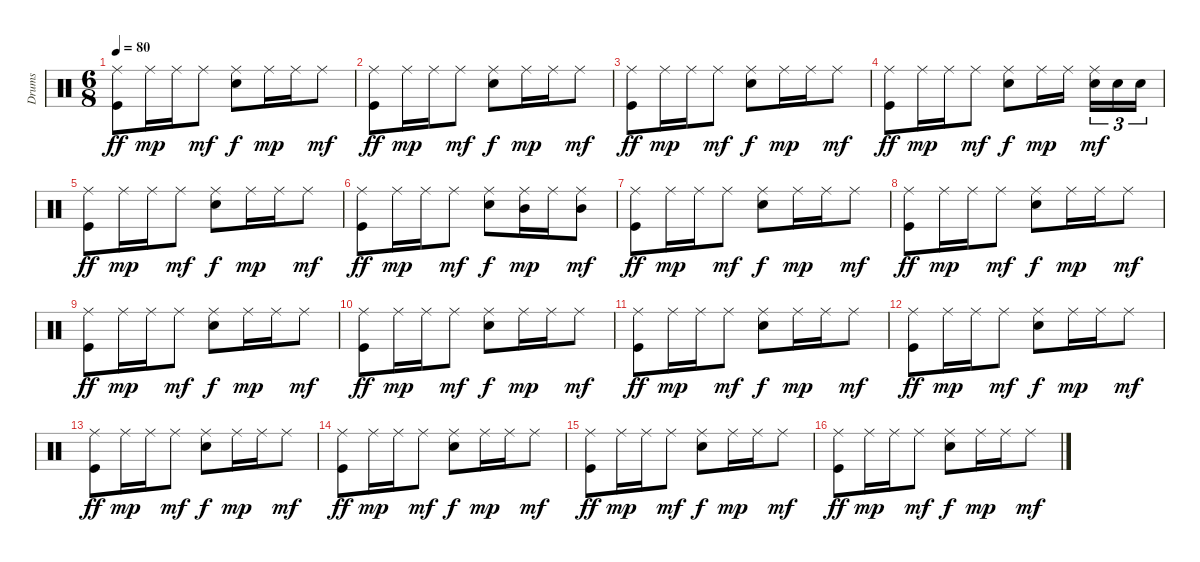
\track ("Drums" "Drums") {instrument percussion}
\staff {score}
\articulation defaults
\ts (6 8)
\tempo 80
\clef neutral
\ks c
("Kick (hit)" "Ride (middle)").8{dy ff} "Ride (middle)".16{dy mp} "Ride (middle)".16 "Ride (middle)".8{dy mf} ("Ride (middle)" "Snare (hit) 2").8{dy f} "Ride (middle)".16{dy mp} "Ride (middle)".16 "Ride (middle)".8{dy mf} |
("Kick (hit)" "Ride (middle)").8{dy ff} "Ride (middle)".16{dy mp} "Ride (middle)".16 "Ride (middle)".8{dy mf} ("Ride (middle)" "Snare (hit) 2").8{dy f} "Ride (middle)".16{dy mp} "Ride (middle)".16 "Ride (middle)".8{dy mf} |
("Kick (hit)" "Ride (middle)").8{dy ff} "Ride (middle)".16{dy mp} "Ride (middle)".16 "Ride (middle)".8{dy mf} ("Ride (middle)" "Snare (hit) 2").8{dy f} "Ride (middle)".16{dy mp} "Ride (middle)".16 "Ride (middle)".8{dy mf} |
("Kick (hit)" "Ride (middle)").8{dy ff} "Ride (middle)".16{dy mp} "Ride (middle)".16 "Ride (middle)".8{dy mf} ("Ride (middle)" "Snare (hit) 2").8{dy f} "Ride (middle)".16{dy mp} "Ride (middle)".16 ("Ride (middle)" "Snare (hit) 2").16{tu (3 2) dy mf} "Snare (hit) 2".16{tu (3 2)} "Snare (hit) 2".16{tu (3 2)} |
("Kick (hit)" "Ride (middle)").8{dy ff} "Ride (middle)".16{dy mp} "Ride (middle)".16 "Ride (middle)".8{dy mf} ("Ride (middle)" "Snare (hit) 2").8{dy f} "Ride (middle)".16{dy mp} "Ride (middle)".16 "Ride (middle)".8{dy mf} |
("Kick (hit)" "Ride (middle)").8{dy ff} "Ride (middle)".16{dy mp} "Ride (middle)".16 "Ride (middle)".8{dy mf} ("Ride (middle)" "Snare (hit) 2").8{dy f} ("Ride (middle)" "Mid Tom (hit)").16{dy mp} "Ride (middle)".16 ("Ride (middle)" "Mid Tom (hit)").8{dy mf} |
("Kick (hit)" "Ride (middle)").8{dy ff} "Ride (middle)".16{dy mp} "Ride (middle)".16 "Ride (middle)".8{dy mf} ("Ride (middle)" "Snare (hit) 2").8{dy f} "Ride (middle)".16{dy mp} "Ride (middle)".16 "Ride (middle)".8{dy mf} |
("Kick (hit)" "Ride (middle)").8{dy ff} "Ride (middle)".16{dy mp} "Ride (middle)".16 "Ride (middle)".8{dy mf} ("Ride (middle)" "Snare (hit) 2").8{dy f} "Ride (middle)".16{dy mp} "Ride (middle)".16 "Ride (middle)".8{dy mf} |
("Kick (hit)" "Ride (middle)").8{dy ff} "Ride (middle)".16{dy mp} "Ride (middle)".16 "Ride (middle)".8{dy mf} ("Ride (middle)" "Snare (hit) 2").8{dy f} "Ride (middle)".16{dy mp} "Ride (middle)".16 "Ride (middle)".8{dy mf} |
("Kick (hit)" "Ride (middle)").8{dy ff} "Ride (middle)".16{dy mp} "Ride (middle)".16 "Ride (middle)".8{dy mf} ("Ride (middle)" "Snare (hit) 2").8{dy f} "Ride (middle)".16{dy mp} "Ride (middle)".16 "Ride (middle)".8{dy mf} |
("Kick (hit)" "Ride (middle)").8{dy ff} "Ride (middle)".16{dy mp} "Ride (middle)".16 "Ride (middle)".8{dy mf} ("Ride (middle)" "Snare (hit) 2").8{dy f} "Ride (middle)".16{dy mp} "Ride (middle)".16 "Ride (middle)".8{dy mf} |
("Kick (hit)" "Ride (middle)").8{dy ff} "Ride (middle)".16{dy mp} "Ride (middle)".16 "Ride (middle)".8{dy mf} ("Ride (middle)" "Snare (hit) 2").8{dy f} "Ride (middle)".16{dy mp} "Ride (middle)".16 "Ride (middle)".8{dy mf} |
("Kick (hit)" "Ride (middle)").8{dy ff} "Ride (middle)".16{dy mp} "Ride (middle)".16 "Ride (middle)".8{dy mf} ("Ride (middle)" "Snare (hit) 2").8{dy f} "Ride (middle)".16{dy mp} "Ride (middle)".16 "Ride (middle)".8{dy mf} |
("Kick (hit)" "Ride (middle)").8{dy ff} "Ride (middle)".16{dy mp} "Ride (middle)".16 "Ride (middle)".8{dy mf} ("Ride (middle)" "Snare (hit) 2").8{dy f} "Ride (middle)".16{dy mp} "Ride (middle)".16 "Ride (middle)".8{dy mf} |
("Kick (hit)" "Ride (middle)").8{dy ff} "Ride (middle)".16{dy mp} "Ride (middle)".16 "Ride (middle)".8{dy mf} ("Ride (middle)" "Snare (hit) 2").8{dy f} "Ride (middle)".16{dy mp} "Ride (middle)".16 "Ride (middle)".8{dy mf} |
("Kick (hit)" "Ride (middle)").8{dy ff} "Ride (middle)".16{dy mp} "Ride (middle)".16 "Ride (middle)".8{dy mf} ("Ride (middle)" "Snare (hit) 2").8{dy f} "Ride (middle)".16{dy mp} "Ride (middle)".16 "Ride (middle)".8{dy mf}
